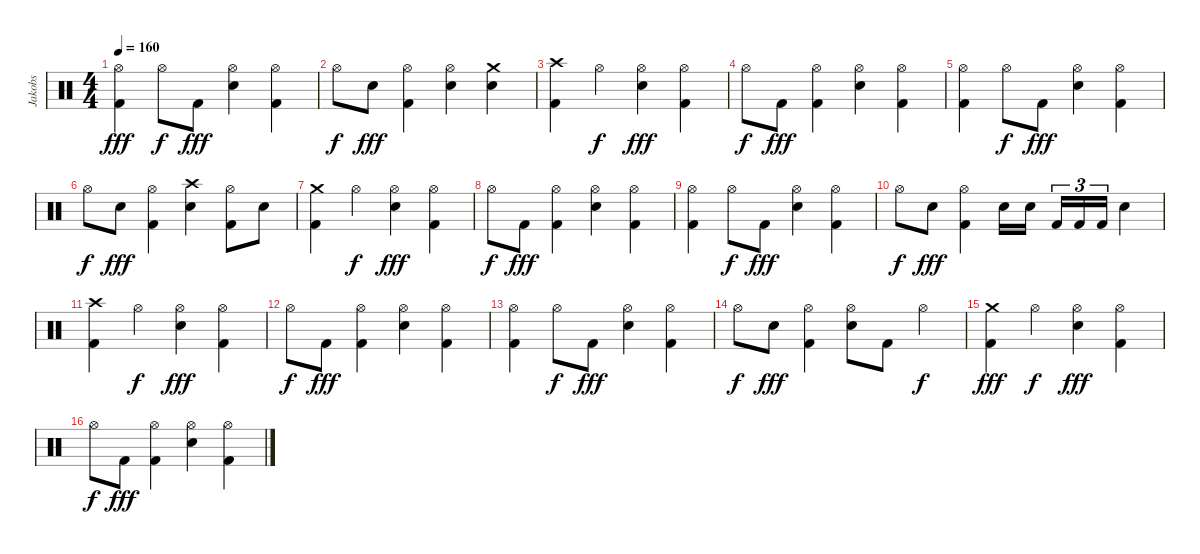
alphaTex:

\track ("Jakobs" "Jakobs") {instrument percussion}
\staff {score}
\articulation defaults
\ts (4 4)
\tempo 160
\clef neutral
\ks c
("Hi-Hat (open)" "Kick (hit) 2").4{dy fff} "Hi-Hat (open)".8{dy f} "Kick (hit) 2".8{dy fff} ("Hi-Hat (open)" "Snare (hit) 2").4 ("Hi-Hat (open)" "Kick (hit) 2").4 |
"Hi-Hat (open)".8{dy f} "Snare (hit) 2".8{dy fff} ("Hi-Hat (open)" "Kick (hit) 2").4 ("Hi-Hat (open)" "Snare (hit) 2").4 ("Crash medium (hit)" "Snare (hit) 2").4 |
("Crash high (hit)" "Kick (hit) 2").4 "Hi-Hat (open)".4{dy f} ("Hi-Hat (open)" "Snare (hit) 2").4{dy fff} ("Hi-Hat (open)" "Kick (hit) 2").4 |
"Hi-Hat (open)".8{dy f} "Kick (hit) 2".8{dy fff} ("Hi-Hat (open)" "Kick (hit) 2").4 ("Hi-Hat (open)" "Snare (hit) 2").4 ("Hi-Hat (open)" "Kick (hit) 2").4 |
("Hi-Hat (open)" "Kick (hit) 2").4 "Hi-Hat (open)".8{dy f} "Kick (hit) 2".8{dy fff} ("Hi-Hat (open)" "Snare (hit) 2").4 ("Hi-Hat (open)" "Kick (hit) 2").4 |
"Hi-Hat (open)".8{dy f} "Snare (hit) 2".8{dy fff} ("Hi-Hat (open)" "Kick (hit) 2").4 ("Crash high (hit)" "Snare (hit) 2").4 ("Hi-Hat (open)" "Kick (hit) 2").8 "Snare (hit) 2".8 |
("Crash medium (hit)" "Kick (hit) 2").4 "Hi-Hat (open)".4{dy f} ("Hi-Hat (open)" "Snare (hit) 2").4{dy fff} ("Hi-Hat (open)" "Kick (hit) 2").4 |
"Hi-Hat (open)".8{dy f} "Kick (hit) 2".8{dy fff} ("Hi-Hat (open)" "Kick (hit) 2").4 ("Hi-Hat (open)" "Snare (hit) 2").4 ("Hi-Hat (open)" "Kick (hit) 2").4 |
("Hi-Hat (open)" "Kick (hit) 2").4 "Hi-Hat (open)".8{dy f} "Kick (hit) 2".8{dy fff} ("Hi-Hat (open)" "Snare (hit) 2").4 ("Hi-Hat (open)" "Kick (hit) 2").4 |
"Hi-Hat (open)".8{dy f} "Snare (hit) 2".8{dy fff} ("Hi-Hat (open)" "Kick (hit) 2").4 "Snare (hit) 2".16 "Snare (hit) 2".16 "Kick (hit) 2".16{tu (3 2)} "Kick (hit) 2".16{tu (3 2)} "Kick (hit) 2".16{tu (3 2)} "Snare (hit) 2".4 |
("Crash high (hit)" "Kick (hit) 2").4 "Hi-Hat (open)".4{dy f} ("Hi-Hat (open)" "Snare (hit) 2").4{dy fff} ("Hi-Hat (open)" "Kick (hit) 2").4 |
"Hi-Hat (open)".8{dy f} "Kick (hit) 2".8{dy fff} ("Hi-Hat (open)" "Kick (hit) 2").4 ("Hi-Hat (open)" "Snare (hit) 2").4 ("Hi-Hat (open)" "Kick (hit) 2").4 |
("Hi-Hat (open)" "Kick (hit) 2").4 "Hi-Hat (open)".8{dy f} "Kick (hit) 2".8{dy fff} ("Hi-Hat (open)" "Snare (hit) 2").4 ("Hi-Hat (open)" "Kick (hit) 2").4 |
"Hi-Hat (open)".8{dy f} "Snare (hit) 2".8{dy fff} ("Hi-Hat (open)" "Kick (hit) 2").4 ("Hi-Hat (open)" "Snare (hit) 2").8 "Kick (hit) 2".8 "Hi-Hat (open)".4{dy f} |
("Crash medium (hit)" "Kick (hit) 2").4{dy fff} "Hi-Hat (open)".4{dy f} ("Hi-Hat (open)" "Snare (hit) 2").4{dy fff} ("Hi-Hat (open)" "Kick (hit) 2").4 |
"Hi-Hat (open)".8{dy f} "Kick (hit) 2".8{dy fff} ("Hi-Hat (open)" "Kick (hit) 2").4 ("Hi-Hat (open)" "Snare (hit) 2").4 ("Hi-Hat (open)" "Kick (hit) 2").4
